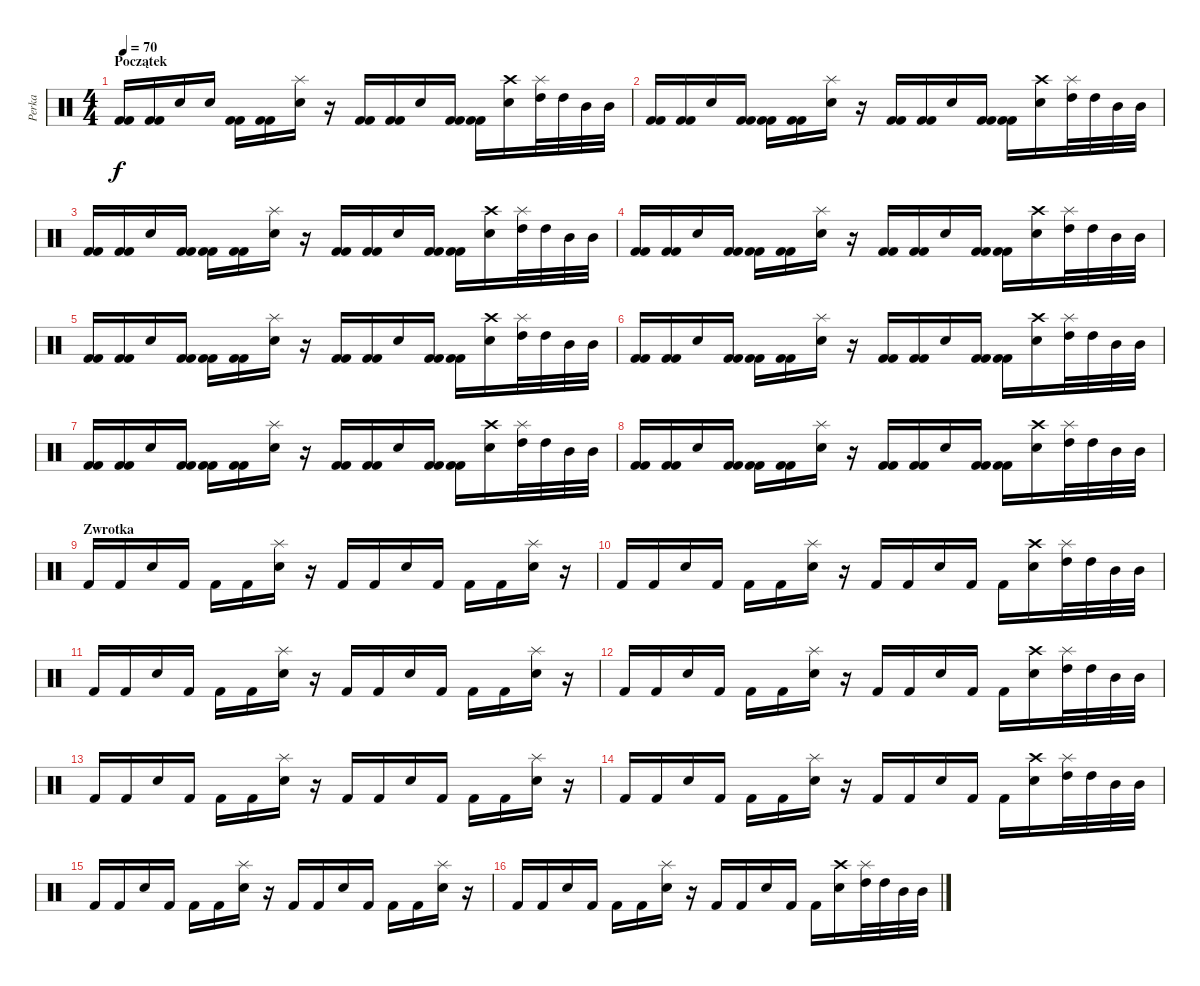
\track ("Perka" "Perka") {instrument percussion}
\staff {score}
\articulation defaults
\ts (4 4)
\section ("" "Początek")
\tempo 70
\clef neutral
\ks c
("Kick (hit) 2" "Kick (hit) 2").16{dy f} ("Kick (hit) 2" "Kick (hit) 2").16 "Electric Snare (hit)".16 "Electric Snare (hit)".16 ("Kick (hit) 2" "Kick (hit) 2").16 ("Kick (hit) 2" "Kick (hit) 2").16 ("Splash (hit)" "Electric Snare (hit)").16 r.16 ("Kick (hit) 2" "Kick (hit) 2").16 ("Kick (hit) 2" "Kick (hit) 2").16 "Electric Snare (hit)".16 ("Kick (hit) 2" "Kick (hit) 2").16 ("Kick (hit) 2" "Kick (hit) 2").16 ("Crash high (hit)" "Electric Snare (hit)").16 ("Splash (hit)" "High Tom (hit)").32 "High Tom (hit)".32 "Mid Tom (hit)".32 "Mid Tom (hit)".32 |
("Kick (hit) 2" "Kick (hit) 2").16 ("Kick (hit) 2" "Kick (hit) 2").16 "Electric Snare (hit)".16 ("Kick (hit) 2" "Kick (hit) 2").16 ("Kick (hit) 2" "Kick (hit) 2").16 ("Kick (hit) 2" "Kick (hit) 2").16 ("Splash (hit)" "Electric Snare (hit)").16 r.16 ("Kick (hit) 2" "Kick (hit) 2").16 ("Kick (hit) 2" "Kick (hit) 2").16 "Electric Snare (hit)".16 ("Kick (hit) 2" "Kick (hit) 2").16 ("Kick (hit) 2" "Kick (hit) 2").16 ("Crash high (hit)" "Electric Snare (hit)").16 ("Splash (hit)" "High Tom (hit)").32 "High Tom (hit)".32 "Mid Tom (hit)".32 "Mid Tom (hit)".32 |
("Kick (hit) 2" "Kick (hit) 2").16 ("Kick (hit) 2" "Kick (hit) 2").16 "Electric Snare (hit)".16 ("Kick (hit) 2" "Kick (hit) 2").16 ("Kick (hit) 2" "Kick (hit) 2").16 ("Kick (hit) 2" "Kick (hit) 2").16 ("Splash (hit)" "Electric Snare (hit)").16 r.16 ("Kick (hit) 2" "Kick (hit) 2").16 ("Kick (hit) 2" "Kick (hit) 2").16 "Electric Snare (hit)".16 ("Kick (hit) 2" "Kick (hit) 2").16 ("Kick (hit) 2" "Kick (hit) 2").16 ("Crash high (hit)" "Electric Snare (hit)").16 ("Splash (hit)" "High Tom (hit)").32 "High Tom (hit)".32 "Mid Tom (hit)".32 "Mid Tom (hit)".32 |
("Kick (hit) 2" "Kick (hit) 2").16 ("Kick (hit) 2" "Kick (hit) 2").16 "Electric Snare (hit)".16 ("Kick (hit) 2" "Kick (hit) 2").16 ("Kick (hit) 2" "Kick (hit) 2").16 ("Kick (hit) 2" "Kick (hit) 2").16 ("Splash (hit)" "Electric Snare (hit)").16 r.16 ("Kick (hit) 2" "Kick (hit) 2").16 ("Kick (hit) 2" "Kick (hit) 2").16 "Electric Snare (hit)".16 ("Kick (hit) 2" "Kick (hit) 2").16 ("Kick (hit) 2" "Kick (hit) 2").16 ("Crash high (hit)" "Electric Snare (hit)").16 ("Splash (hit)" "High Tom (hit)").32 "High Tom (hit)".32 "Mid Tom (hit)".32 "Mid Tom (hit)".32 |
("Kick (hit) 2" "Kick (hit) 2").16 ("Kick (hit) 2" "Kick (hit) 2").16 "Electric Snare (hit)".16 ("Kick (hit) 2" "Kick (hit) 2").16 ("Kick (hit) 2" "Kick (hit) 2").16 ("Kick (hit) 2" "Kick (hit) 2").16 ("Splash (hit)" "Electric Snare (hit)").16 r.16 ("Kick (hit) 2" "Kick (hit) 2").16 ("Kick (hit) 2" "Kick (hit) 2").16 "Electric Snare (hit)".16 ("Kick (hit) 2" "Kick (hit) 2").16 ("Kick (hit) 2" "Kick (hit) 2").16 ("Crash high (hit)" "Electric Snare (hit)").16 ("Splash (hit)" "High Tom (hit)").32 "High Tom (hit)".32 "Mid Tom (hit)".32 "Mid Tom (hit)".32 |
("Kick (hit) 2" "Kick (hit) 2").16 ("Kick (hit) 2" "Kick (hit) 2").16 "Electric Snare (hit)".16 ("Kick (hit) 2" "Kick (hit) 2").16 ("Kick (hit) 2" "Kick (hit) 2").16 ("Kick (hit) 2" "Kick (hit) 2").16 ("Splash (hit)" "Electric Snare (hit)").16 r.16 ("Kick (hit) 2" "Kick (hit) 2").16 ("Kick (hit) 2" "Kick (hit) 2").16 "Electric Snare (hit)".16 ("Kick (hit) 2" "Kick (hit) 2").16 ("Kick (hit) 2" "Kick (hit) 2").16 ("Crash high (hit)" "Electric Snare (hit)").16 ("Splash (hit)" "High Tom (hit)").32 "High Tom (hit)".32 "Mid Tom (hit)".32 "Mid Tom (hit)".32 |
("Kick (hit) 2" "Kick (hit) 2").16 ("Kick (hit) 2" "Kick (hit) 2").16 "Electric Snare (hit)".16 ("Kick (hit) 2" "Kick (hit) 2").16 ("Kick (hit) 2" "Kick (hit) 2").16 ("Kick (hit) 2" "Kick (hit) 2").16 ("Splash (hit)" "Electric Snare (hit)").16 r.16 ("Kick (hit) 2" "Kick (hit) 2").16 ("Kick (hit) 2" "Kick (hit) 2").16 "Electric Snare (hit)".16 ("Kick (hit) 2" "Kick (hit) 2").16 ("Kick (hit) 2" "Kick (hit) 2").16 ("Crash high (hit)" "Electric Snare (hit)").16 ("Splash (hit)" "High Tom (hit)").32 "High Tom (hit)".32 "Mid Tom (hit)".32 "Mid Tom (hit)".32 |
("Kick (hit) 2" "Kick (hit) 2").16 ("Kick (hit) 2" "Kick (hit) 2").16 "Electric Snare (hit)".16 ("Kick (hit) 2" "Kick (hit) 2").16 ("Kick (hit) 2" "Kick (hit) 2").16 ("Kick (hit) 2" "Kick (hit) 2").16 ("Splash (hit)" "Electric Snare (hit)").16 r.16 ("Kick (hit) 2" "Kick (hit) 2").16 ("Kick (hit) 2" "Kick (hit) 2").16 "Electric Snare (hit)".16 ("Kick (hit) 2" "Kick (hit) 2").16 ("Kick (hit) 2" "Kick (hit) 2").16 ("Crash high (hit)" "Electric Snare (hit)").16 ("Splash (hit)" "High Tom (hit)").32 "High Tom (hit)".32 "Mid Tom (hit)".32 "Mid Tom (hit)".32 |
\section ("" "Zwrotka")
"Kick (hit) 2".16 "Kick (hit) 2".16 "Electric Snare (hit)".16 "Kick (hit) 2".16 "Kick (hit) 2".16 "Kick (hit) 2".16 ("Splash (hit)" "Electric Snare (hit)").16 r.16 "Kick (hit) 2".16 "Kick (hit) 2".16 "Electric Snare (hit)".16 "Kick (hit) 2".16 "Kick (hit) 2".16 "Kick (hit) 2".16 ("Splash (hit)" "Electric Snare (hit)").16 r.16 |
"Kick (hit) 2".16 "Kick (hit) 2".16 "Electric Snare (hit)".16 "Kick (hit) 2".16 "Kick (hit) 2".16 "Kick (hit) 2".16 ("Splash (hit)" "Electric Snare (hit)").16 r.16 "Kick (hit) 2".16 "Kick (hit) 2".16 "Electric Snare (hit)".16 "Kick (hit) 2".16 "Kick (hit) 2".16 ("Crash high (hit)" "Electric Snare (hit)").16 ("Splash (hit)" "High Tom (hit)").32 "High Tom (hit)".32 "Mid Tom (hit)".32 "Mid Tom (hit)".32 |
"Kick (hit) 2".16 "Kick (hit) 2".16 "Electric Snare (hit)".16 "Kick (hit) 2".16 "Kick (hit) 2".16 "Kick (hit) 2".16 ("Splash (hit)" "Electric Snare (hit)").16 r.16 "Kick (hit) 2".16 "Kick (hit) 2".16 "Electric Snare (hit)".16 "Kick (hit) 2".16 "Kick (hit) 2".16 "Kick (hit) 2".16 ("Splash (hit)" "Electric Snare (hit)").16 r.16 |
"Kick (hit) 2".16 "Kick (hit) 2".16 "Electric Snare (hit)".16 "Kick (hit) 2".16 "Kick (hit) 2".16 "Kick (hit) 2".16 ("Splash (hit)" "Electric Snare (hit)").16 r.16 "Kick (hit) 2".16 "Kick (hit) 2".16 "Electric Snare (hit)".16 "Kick (hit) 2".16 "Kick (hit) 2".16 ("Crash high (hit)" "Electric Snare (hit)").16 ("Splash (hit)" "High Tom (hit)").32 "High Tom (hit)".32 "Mid Tom (hit)".32 "Mid Tom (hit)".32 |
"Kick (hit) 2".16 "Kick (hit) 2".16 "Electric Snare (hit)".16 "Kick (hit) 2".16 "Kick (hit) 2".16 "Kick (hit) 2".16 ("Splash (hit)" "Electric Snare (hit)").16 r.16 "Kick (hit) 2".16 "Kick (hit) 2".16 "Electric Snare (hit)".16 "Kick (hit) 2".16 "Kick (hit) 2".16 "Kick (hit) 2".16 ("Splash (hit)" "Electric Snare (hit)").16 r.16 |
"Kick (hit) 2".16 "Kick (hit) 2".16 "Electric Snare (hit)".16 "Kick (hit) 2".16 "Kick (hit) 2".16 "Kick (hit) 2".16 ("Splash (hit)" "Electric Snare (hit)").16 r.16 "Kick (hit) 2".16 "Kick (hit) 2".16 "Electric Snare (hit)".16 "Kick (hit) 2".16 "Kick (hit) 2".16 ("Crash high (hit)" "Electric Snare (hit)").16 ("Splash (hit)" "High Tom (hit)").32 "High Tom (hit)".32 "Mid Tom (hit)".32 "Mid Tom (hit)".32 |
"Kick (hit) 2".16 "Kick (hit) 2".16 "Electric Snare (hit)".16 "Kick (hit) 2".16 "Kick (hit) 2".16 "Kick (hit) 2".16 ("Splash (hit)" "Electric Snare (hit)").16 r.16 "Kick (hit) 2".16 "Kick (hit) 2".16 "Electric Snare (hit)".16 "Kick (hit) 2".16 "Kick (hit) 2".16 "Kick (hit) 2".16 ("Splash (hit)" "Electric Snare (hit)").16 r.16 |
"Kick (hit) 2".16 "Kick (hit) 2".16 "Electric Snare (hit)".16 "Kick (hit) 2".16 "Kick (hit) 2".16 "Kick (hit) 2".16 ("Splash (hit)" "Electric Snare (hit)").16 r.16 "Kick (hit) 2".16 "Kick (hit) 2".16 "Electric Snare (hit)".16 "Kick (hit) 2".16 "Kick (hit) 2".16 ("Crash high (hit)" "Electric Snare (hit)").16 ("Splash (hit)" "High Tom (hit)").32 "High Tom (hit)".32 "Mid Tom (hit)".32 "Mid Tom (hit)".32
